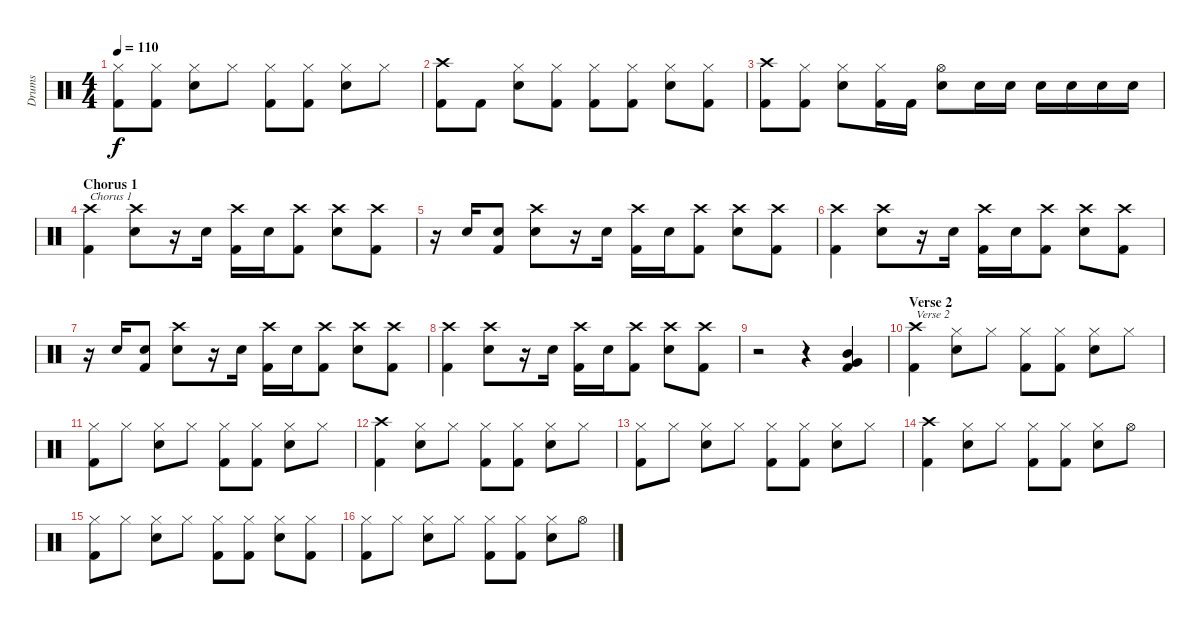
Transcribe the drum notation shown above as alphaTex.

\track ("Drums" "Drums") {instrument percussion}
\staff {score}
\articulation defaults
\ts (4 4)
\tempo 110
\clef neutral
\ks c
("Hi-Hat (closed)" "Kick (hit) 2").8{dy f} ("Hi-Hat (closed)" "Kick (hit) 2").8 ("Hi-Hat (closed)" "Electric Snare (hit)").8 "Hi-Hat (closed)".8 ("Hi-Hat (closed)" "Kick (hit) 2").8 ("Hi-Hat (closed)" "Kick (hit) 2").8 ("Hi-Hat (closed)" "Electric Snare (hit)").8 "Hi-Hat (closed)".8 |
("Crash high (hit)" "Kick (hit) 2").8 "Kick (hit) 2".8 ("Hi-Hat (closed)" "Electric Snare (hit)").8 ("Hi-Hat (closed)" "Kick (hit) 2").8 ("Hi-Hat (closed)" "Kick (hit) 2").8 ("Hi-Hat (closed)" "Kick (hit) 2").8 ("Hi-Hat (closed)" "Electric Snare (hit)").8 ("Hi-Hat (closed)" "Kick (hit) 2").8 |
("Crash high (hit)" "Kick (hit) 2").8 ("Hi-Hat (closed)" "Kick (hit) 2").8 ("Hi-Hat (closed)" "Electric Snare (hit)").8 ("Hi-Hat (closed)" "Kick (hit) 2").16 "Kick (hit) 2".16 ("Hi-Hat (open)" "Electric Snare (hit)").8 "Electric Snare (hit)".16 "Electric Snare (hit)".16 "Electric Snare (hit)".16 "Electric Snare (hit)".16 "Electric Snare (hit)".16 "Electric Snare (hit)".16 |
\section ("" "Chorus 1")
("Crash high (hit)" "Kick (hit) 2").4{txt "Chorus 1"} ("Crash high (hit)" "Electric Snare (hit)").8 r.16 "Electric Snare (hit)".16 ("Crash high (hit)" "Kick (hit) 2").16 "Electric Snare (hit)".16 ("Crash high (hit)" "Kick (hit) 2").8 ("Crash high (hit)" "Electric Snare (hit)").8 ("Crash high (hit)" "Kick (hit) 2").8 |
r.16 "Electric Snare (hit)".16 ("Electric Snare (hit)" "Kick (hit) 2").8 ("Crash high (hit)" "Electric Snare (hit)").8 r.16 "Electric Snare (hit)".16 ("Crash high (hit)" "Kick (hit) 2").16 "Electric Snare (hit)".16 ("Crash high (hit)" "Kick (hit) 2").8 ("Crash high (hit)" "Electric Snare (hit)").8 ("Crash high (hit)" "Kick (hit) 2").8 |
("Crash high (hit)" "Kick (hit) 2").4 ("Crash high (hit)" "Electric Snare (hit)").8 r.16 "Electric Snare (hit)".16 ("Crash high (hit)" "Kick (hit) 2").16 "Electric Snare (hit)".16 ("Crash high (hit)" "Kick (hit) 2").8 ("Crash high (hit)" "Electric Snare (hit)").8 ("Crash high (hit)" "Kick (hit) 2").8 |
r.16 "Electric Snare (hit)".16 ("Electric Snare (hit)" "Kick (hit) 2").8 ("Crash high (hit)" "Electric Snare (hit)").8 r.16 "Electric Snare (hit)".16 ("Crash high (hit)" "Kick (hit) 2").16 "Electric Snare (hit)".16 ("Crash high (hit)" "Kick (hit) 2").8 ("Crash high (hit)" "Electric Snare (hit)").8 ("Crash high (hit)" "Kick (hit) 2").8 |
("Crash high (hit)" "Kick (hit) 2").4 ("Crash high (hit)" "Electric Snare (hit)").8 r.16 "Electric Snare (hit)".16 ("Crash high (hit)" "Kick (hit) 2").16 "Electric Snare (hit)".16 ("Crash high (hit)" "Kick (hit) 2").8 ("Crash high (hit)" "Electric Snare (hit)").8 ("Crash high (hit)" "Kick (hit) 2").8 |
r.2 r.4 ("Mid Tom (hit)" "Very Low Tom (hit)" "Kick (hit) 2").4 |
\section ("" "Verse 2")
("Crash high (hit)" "Kick (hit) 2").4{txt "Verse 2"} ("Hi-Hat (closed)" "Electric Snare (hit)").8 "Hi-Hat (closed)".8 ("Hi-Hat (closed)" "Kick (hit) 2").8 ("Hi-Hat (closed)" "Kick (hit) 2").8 ("Hi-Hat (closed)" "Electric Snare (hit)").8 "Hi-Hat (closed)".8 |
("Hi-Hat (closed)" "Kick (hit) 2").8 "Hi-Hat (closed)".8 ("Hi-Hat (closed)" "Electric Snare (hit)").8 "Hi-Hat (closed)".8 ("Hi-Hat (closed)" "Kick (hit) 2").8 ("Hi-Hat (closed)" "Kick (hit) 2").8 ("Hi-Hat (closed)" "Electric Snare (hit)").8 "Hi-Hat (closed)".8 |
("Crash high (hit)" "Kick (hit) 2").4 ("Hi-Hat (closed)" "Electric Snare (hit)").8 "Hi-Hat (closed)".8 ("Hi-Hat (closed)" "Kick (hit) 2").8 ("Hi-Hat (closed)" "Kick (hit) 2").8 ("Hi-Hat (closed)" "Electric Snare (hit)").8 "Hi-Hat (closed)".8 |
("Hi-Hat (closed)" "Kick (hit) 2").8 "Hi-Hat (closed)".8 ("Hi-Hat (closed)" "Electric Snare (hit)").8 "Hi-Hat (closed)".8 ("Hi-Hat (closed)" "Kick (hit) 2").8 ("Hi-Hat (closed)" "Kick (hit) 2").8 ("Hi-Hat (closed)" "Electric Snare (hit)").8 "Hi-Hat (closed)".8 |
("Crash high (hit)" "Kick (hit) 2").4 ("Hi-Hat (closed)" "Electric Snare (hit)").8 "Hi-Hat (closed)".8 ("Hi-Hat (closed)" "Kick (hit) 2").8 ("Hi-Hat (closed)" "Kick (hit) 2").8 ("Hi-Hat (closed)" "Electric Snare (hit)").8 "Hi-Hat (open)".8 |
("Hi-Hat (closed)" "Kick (hit) 2").8 "Hi-Hat (closed)".8 ("Hi-Hat (closed)" "Electric Snare (hit)").8 "Hi-Hat (closed)".8 ("Hi-Hat (closed)" "Kick (hit) 2").8 ("Hi-Hat (closed)" "Kick (hit) 2").8 ("Hi-Hat (closed)" "Electric Snare (hit)").8 ("Hi-Hat (closed)" "Kick (hit) 2").8 |
("Hi-Hat (closed)" "Kick (hit) 2").8 "Hi-Hat (closed)".8 ("Hi-Hat (closed)" "Electric Snare (hit)").8 "Hi-Hat (closed)".8 ("Hi-Hat (closed)" "Kick (hit) 2").8 ("Hi-Hat (closed)" "Kick (hit) 2").8 ("Hi-Hat (closed)" "Electric Snare (hit)").8 "Hi-Hat (open)".8
